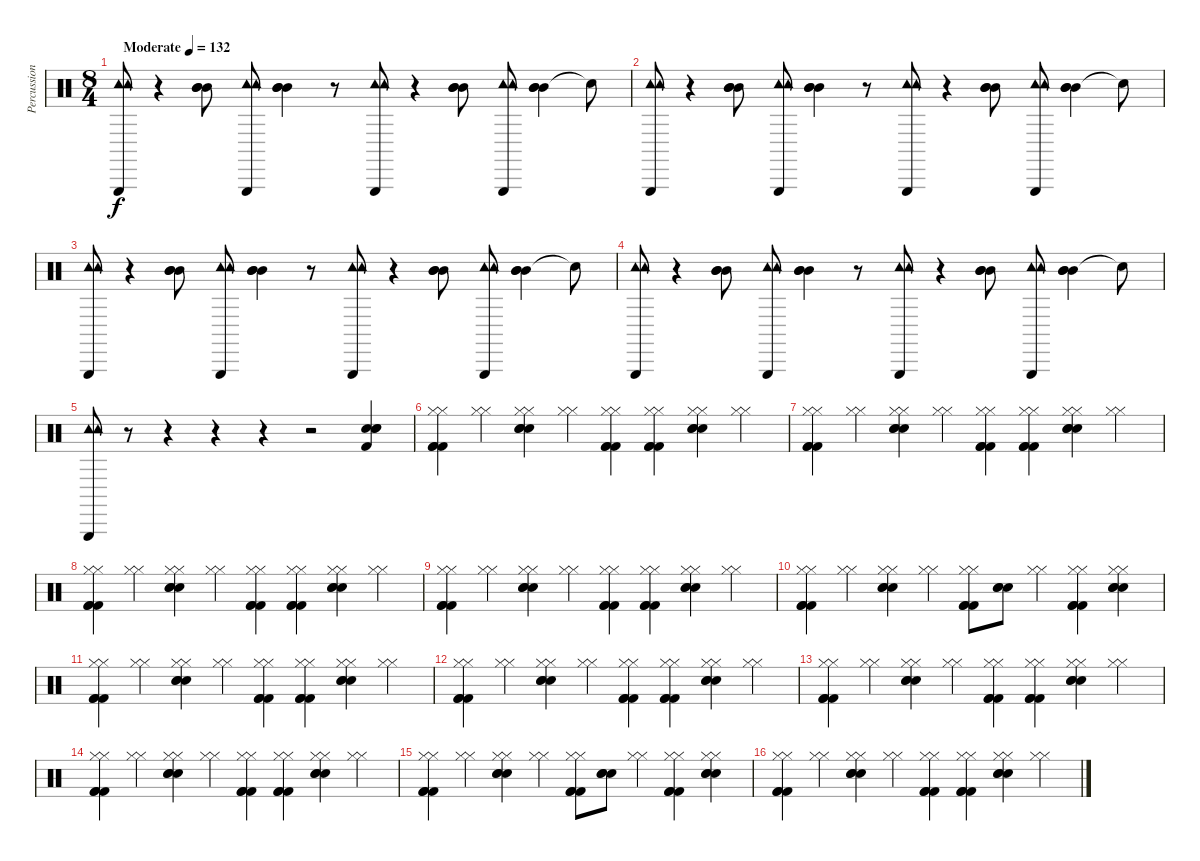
\track ("Percussions" "Percussion") {instrument percussion}
\staff {score}
\articulation defaults
\ts (8 4)
\tempo (132 "Moderate")
\clef neutral
\ks c
("Tambourine (hit)" "Tambourine (hit)" "Triangle (hit)").8{dy f} r.4 ("Mid Tom (hit)" "Mid Tom (hit)" "Mid Tom (hit)").8 ("Tambourine (hit)" "Tambourine (hit)" "Triangle (hit)").8 ("Mid Tom (hit)" "Mid Tom (hit)" "Mid Tom (hit)").4 r.8 ("Tambourine (hit)" "Tambourine (hit)" "Triangle (hit)").8 r.4 ("Mid Tom (hit)" "Mid Tom (hit)" "Mid Tom (hit)").8 ("Tambourine (hit)" "Tambourine (hit)" "Triangle (hit)").8 ("Mid Tom (hit)" "Mid Tom (hit)" "Mid Tom (hit)").4 "Snare (hit)"{t}.8 |
("Tambourine (hit)" "Tambourine (hit)" "Triangle (hit)").8 r.4 ("Mid Tom (hit)" "Mid Tom (hit)" "Mid Tom (hit)").8 ("Tambourine (hit)" "Tambourine (hit)" "Triangle (hit)").8 ("Mid Tom (hit)" "Mid Tom (hit)" "Mid Tom (hit)").4 r.8 ("Tambourine (hit)" "Tambourine (hit)" "Triangle (hit)").8 r.4 ("Mid Tom (hit)" "Mid Tom (hit)" "Mid Tom (hit)").8 ("Tambourine (hit)" "Tambourine (hit)" "Triangle (hit)").8 ("Mid Tom (hit)" "Mid Tom (hit)" "Mid Tom (hit)").4 "Snare (hit)"{t}.8 |
("Tambourine (hit)" "Tambourine (hit)" "Triangle (hit)").8 r.4 ("Mid Tom (hit)" "Mid Tom (hit)" "Mid Tom (hit)").8 ("Tambourine (hit)" "Tambourine (hit)" "Triangle (hit)").8 ("Mid Tom (hit)" "Mid Tom (hit)" "Mid Tom (hit)").4 r.8 ("Tambourine (hit)" "Tambourine (hit)" "Triangle (hit)").8 r.4 ("Mid Tom (hit)" "Mid Tom (hit)" "Mid Tom (hit)").8 ("Tambourine (hit)" "Tambourine (hit)" "Triangle (hit)").8 ("Mid Tom (hit)" "Mid Tom (hit)" "Mid Tom (hit)").4 "Snare (hit)"{t}.8 |
("Tambourine (hit)" "Tambourine (hit)" "Triangle (hit)").8 r.4 ("Mid Tom (hit)" "Mid Tom (hit)" "Mid Tom (hit)").8 ("Tambourine (hit)" "Tambourine (hit)" "Triangle (hit)").8 ("Mid Tom (hit)" "Mid Tom (hit)" "Mid Tom (hit)").4 r.8 ("Tambourine (hit)" "Tambourine (hit)" "Triangle (hit)").8 r.4 ("Mid Tom (hit)" "Mid Tom (hit)" "Mid Tom (hit)").8 ("Tambourine (hit)" "Tambourine (hit)" "Triangle (hit)").8 ("Mid Tom (hit)" "Mid Tom (hit)" "Mid Tom (hit)").4 "Snare (hit)"{t}.8 |
("Tambourine (hit)" "Tambourine (hit)" "Triangle (hit)").8 r.8 r.4 r.4 r.4 r.2 ("Electric Snare (hit)" "Electric Snare (hit)" "Electric Snare (hit)" "Kick (hit) 2").4 |
("Kick (hit) 2" "Kick (hit) 2" "Kick (hit) 2" "Hi-Hat (closed)" "Hi-Hat (closed)").4 ("Hi-Hat (closed)" "Hi-Hat (closed)").4 ("Electric Snare (hit)" "Electric Snare (hit)" "Electric Snare (hit)" "Hi-Hat (closed)" "Hi-Hat (closed)").4 ("Hi-Hat (closed)" "Hi-Hat (closed)").4 ("Kick (hit) 2" "Kick (hit) 2" "Kick (hit) 2" "Hi-Hat (closed)" "Hi-Hat (closed)").4 ("Kick (hit) 2" "Kick (hit) 2" "Kick (hit) 2" "Hi-Hat (closed)" "Hi-Hat (closed)").4 ("Electric Snare (hit)" "Electric Snare (hit)" "Electric Snare (hit)" "Hi-Hat (closed)" "Hi-Hat (closed)").4 ("Hi-Hat (closed)" "Hi-Hat (closed)").4 |
("Kick (hit) 2" "Kick (hit) 2" "Kick (hit) 2" "Hi-Hat (closed)" "Hi-Hat (closed)").4 ("Hi-Hat (closed)" "Hi-Hat (closed)").4 ("Electric Snare (hit)" "Electric Snare (hit)" "Electric Snare (hit)" "Hi-Hat (closed)" "Hi-Hat (closed)").4 ("Hi-Hat (closed)" "Hi-Hat (closed)").4 ("Kick (hit) 2" "Kick (hit) 2" "Kick (hit) 2" "Hi-Hat (closed)" "Hi-Hat (closed)").4 ("Kick (hit) 2" "Kick (hit) 2" "Kick (hit) 2" "Hi-Hat (closed)" "Hi-Hat (closed)").4 ("Electric Snare (hit)" "Electric Snare (hit)" "Electric Snare (hit)" "Hi-Hat (closed)" "Hi-Hat (closed)").4 ("Hi-Hat (closed)" "Hi-Hat (closed)").4 |
("Kick (hit) 2" "Kick (hit) 2" "Kick (hit) 2" "Hi-Hat (closed)" "Hi-Hat (closed)").4 ("Hi-Hat (closed)" "Hi-Hat (closed)").4 ("Electric Snare (hit)" "Electric Snare (hit)" "Electric Snare (hit)" "Hi-Hat (closed)" "Hi-Hat (closed)").4 ("Hi-Hat (closed)" "Hi-Hat (closed)").4 ("Kick (hit) 2" "Kick (hit) 2" "Kick (hit) 2" "Hi-Hat (closed)" "Hi-Hat (closed)").4 ("Kick (hit) 2" "Kick (hit) 2" "Kick (hit) 2" "Hi-Hat (closed)" "Hi-Hat (closed)").4 ("Electric Snare (hit)" "Electric Snare (hit)" "Electric Snare (hit)" "Hi-Hat (closed)" "Hi-Hat (closed)").4 ("Hi-Hat (closed)" "Hi-Hat (closed)").4 |
("Kick (hit) 2" "Kick (hit) 2" "Kick (hit) 2" "Hi-Hat (closed)" "Hi-Hat (closed)").4 ("Hi-Hat (closed)" "Hi-Hat (closed)").4 ("Electric Snare (hit)" "Electric Snare (hit)" "Electric Snare (hit)" "Hi-Hat (closed)" "Hi-Hat (closed)").4 ("Hi-Hat (closed)" "Hi-Hat (closed)").4 ("Kick (hit) 2" "Kick (hit) 2" "Kick (hit) 2" "Hi-Hat (closed)" "Hi-Hat (closed)").4 ("Kick (hit) 2" "Kick (hit) 2" "Kick (hit) 2" "Hi-Hat (closed)" "Hi-Hat (closed)").4 ("Electric Snare (hit)" "Electric Snare (hit)" "Electric Snare (hit)" "Hi-Hat (closed)" "Hi-Hat (closed)").4 ("Hi-Hat (closed)" "Hi-Hat (closed)").4 |
("Kick (hit) 2" "Kick (hit) 2" "Kick (hit) 2" "Hi-Hat (closed)" "Hi-Hat (closed)").4 ("Hi-Hat (closed)" "Hi-Hat (closed)").4 ("Electric Snare (hit)" "Electric Snare (hit)" "Electric Snare (hit)" "Hi-Hat (closed)" "Hi-Hat (closed)").4 ("Hi-Hat (closed)" "Hi-Hat (closed)").4 ("Kick (hit) 2" "Kick (hit) 2" "Kick (hit) 2" "Hi-Hat (closed)" "Hi-Hat (closed)").8 ("Electric Snare (hit)" "Electric Snare (hit)" "Electric Snare (hit)").8 ("Hi-Hat (closed)" "Hi-Hat (closed)").4 ("Kick (hit) 2" "Kick (hit) 2" "Kick (hit) 2" "Hi-Hat (closed)" "Hi-Hat (closed)").4 ("Electric Snare (hit)" "Electric Snare (hit)" "Electric Snare (hit)" "Hi-Hat (closed)" "Hi-Hat (closed)").4 |
("Kick (hit) 2" "Kick (hit) 2" "Kick (hit) 2" "Hi-Hat (closed)" "Hi-Hat (closed)").4 ("Hi-Hat (closed)" "Hi-Hat (closed)").4 ("Electric Snare (hit)" "Electric Snare (hit)" "Electric Snare (hit)" "Hi-Hat (closed)" "Hi-Hat (closed)").4 ("Hi-Hat (closed)" "Hi-Hat (closed)").4 ("Kick (hit) 2" "Kick (hit) 2" "Kick (hit) 2" "Hi-Hat (closed)" "Hi-Hat (closed)").4 ("Kick (hit) 2" "Kick (hit) 2" "Kick (hit) 2" "Hi-Hat (closed)" "Hi-Hat (closed)").4 ("Electric Snare (hit)" "Electric Snare (hit)" "Electric Snare (hit)" "Hi-Hat (closed)" "Hi-Hat (closed)").4 ("Hi-Hat (closed)" "Hi-Hat (closed)").4 |
("Kick (hit) 2" "Kick (hit) 2" "Kick (hit) 2" "Hi-Hat (closed)" "Hi-Hat (closed)").4 ("Hi-Hat (closed)" "Hi-Hat (closed)").4 ("Electric Snare (hit)" "Electric Snare (hit)" "Electric Snare (hit)" "Hi-Hat (closed)" "Hi-Hat (closed)").4 ("Hi-Hat (closed)" "Hi-Hat (closed)").4 ("Kick (hit) 2" "Kick (hit) 2" "Kick (hit) 2" "Hi-Hat (closed)" "Hi-Hat (closed)").4 ("Kick (hit) 2" "Kick (hit) 2" "Kick (hit) 2" "Hi-Hat (closed)" "Hi-Hat (closed)").4 ("Electric Snare (hit)" "Electric Snare (hit)" "Electric Snare (hit)" "Hi-Hat (closed)" "Hi-Hat (closed)").4 ("Hi-Hat (closed)" "Hi-Hat (closed)").4 |
("Kick (hit) 2" "Kick (hit) 2" "Kick (hit) 2" "Hi-Hat (closed)" "Hi-Hat (closed)").4 ("Hi-Hat (closed)" "Hi-Hat (closed)").4 ("Electric Snare (hit)" "Electric Snare (hit)" "Electric Snare (hit)" "Hi-Hat (closed)" "Hi-Hat (closed)").4 ("Hi-Hat (closed)" "Hi-Hat (closed)").4 ("Kick (hit) 2" "Kick (hit) 2" "Kick (hit) 2" "Hi-Hat (closed)" "Hi-Hat (closed)").4 ("Kick (hit) 2" "Kick (hit) 2" "Kick (hit) 2" "Hi-Hat (closed)" "Hi-Hat (closed)").4 ("Electric Snare (hit)" "Electric Snare (hit)" "Electric Snare (hit)" "Hi-Hat (closed)" "Hi-Hat (closed)").4 ("Hi-Hat (closed)" "Hi-Hat (closed)").4 |
("Kick (hit) 2" "Kick (hit) 2" "Kick (hit) 2" "Hi-Hat (closed)" "Hi-Hat (closed)").4 ("Hi-Hat (closed)" "Hi-Hat (closed)").4 ("Electric Snare (hit)" "Electric Snare (hit)" "Electric Snare (hit)" "Hi-Hat (closed)" "Hi-Hat (closed)").4 ("Hi-Hat (closed)" "Hi-Hat (closed)").4 ("Kick (hit) 2" "Kick (hit) 2" "Kick (hit) 2" "Hi-Hat (closed)" "Hi-Hat (closed)").4 ("Kick (hit) 2" "Kick (hit) 2" "Kick (hit) 2" "Hi-Hat (closed)" "Hi-Hat (closed)").4 ("Electric Snare (hit)" "Electric Snare (hit)" "Electric Snare (hit)" "Hi-Hat (closed)" "Hi-Hat (closed)").4 ("Hi-Hat (closed)" "Hi-Hat (closed)").4 |
("Kick (hit) 2" "Kick (hit) 2" "Kick (hit) 2" "Hi-Hat (closed)" "Hi-Hat (closed)").4 ("Hi-Hat (closed)" "Hi-Hat (closed)").4 ("Electric Snare (hit)" "Electric Snare (hit)" "Electric Snare (hit)" "Hi-Hat (closed)" "Hi-Hat (closed)").4 ("Hi-Hat (closed)" "Hi-Hat (closed)").4 ("Kick (hit) 2" "Kick (hit) 2" "Kick (hit) 2" "Hi-Hat (closed)" "Hi-Hat (closed)").8 ("Electric Snare (hit)" "Electric Snare (hit)" "Electric Snare (hit)").8 ("Hi-Hat (closed)" "Hi-Hat (closed)").4 ("Kick (hit) 2" "Kick (hit) 2" "Kick (hit) 2" "Hi-Hat (closed)" "Hi-Hat (closed)").4 ("Electric Snare (hit)" "Electric Snare (hit)" "Electric Snare (hit)" "Hi-Hat (closed)" "Hi-Hat (closed)").4 |
("Kick (hit) 2" "Kick (hit) 2" "Kick (hit) 2" "Hi-Hat (closed)" "Hi-Hat (closed)").4 ("Hi-Hat (closed)" "Hi-Hat (closed)").4 ("Electric Snare (hit)" "Electric Snare (hit)" "Electric Snare (hit)" "Hi-Hat (closed)" "Hi-Hat (closed)").4 ("Hi-Hat (closed)" "Hi-Hat (closed)").4 ("Kick (hit) 2" "Kick (hit) 2" "Kick (hit) 2" "Hi-Hat (closed)" "Hi-Hat (closed)").4 ("Kick (hit) 2" "Kick (hit) 2" "Kick (hit) 2" "Hi-Hat (closed)" "Hi-Hat (closed)").4 ("Electric Snare (hit)" "Electric Snare (hit)" "Electric Snare (hit)" "Hi-Hat (closed)" "Hi-Hat (closed)").4 ("Hi-Hat (closed)" "Hi-Hat (closed)").4
